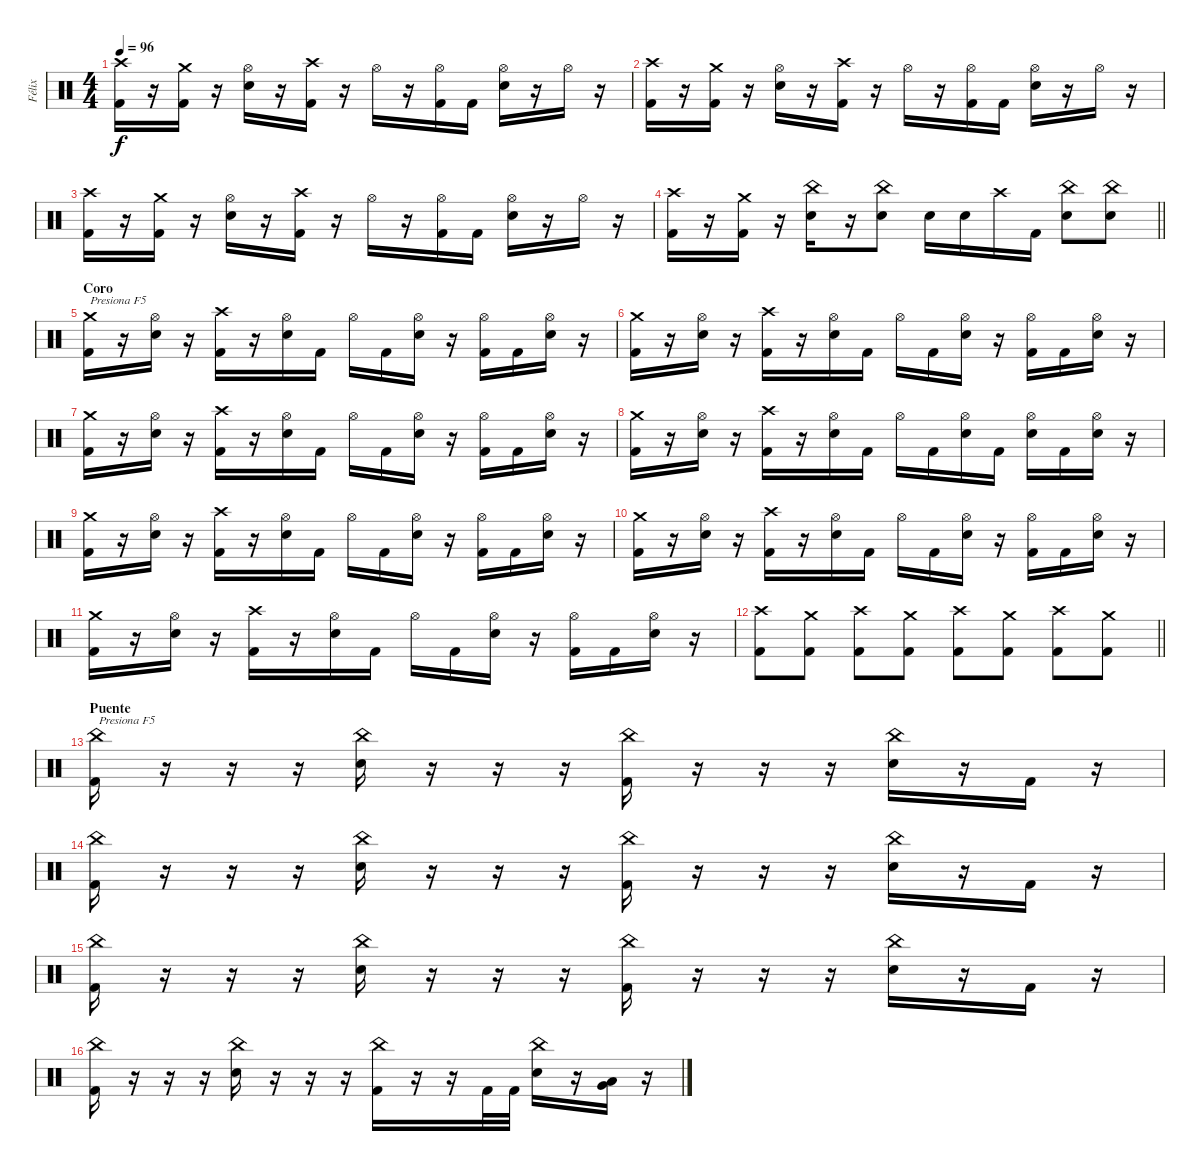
\track ("Félix" "Félix") {instrument percussion}
\staff {score}
\articulation defaults
\ts (4 4)
\tempo 96
\clef neutral
\ks c
("Crash high (hit)" "Kick (hit) 2").16{dy f} r.16 ("Crash medium (hit)" "Kick (hit) 2").16 r.16 ("Hi-Hat (open)" "Snare (hit) 2").16 r.16 ("Crash high (hit)" "Kick (hit) 2").16 r.16 "Hi-Hat (open)".16 r.16 ("Hi-Hat (open)" "Kick (hit) 2").16 "Kick (hit) 2".16 ("Hi-Hat (open)" "Snare (hit) 2").16 r.16 "Hi-Hat (open)".16 r.16 |
("Crash high (hit)" "Kick (hit) 2").16 r.16 ("Crash medium (hit)" "Kick (hit) 2").16 r.16 ("Hi-Hat (open)" "Snare (hit) 2").16 r.16 ("Crash high (hit)" "Kick (hit) 2").16 r.16 "Hi-Hat (open)".16 r.16 ("Hi-Hat (open)" "Kick (hit) 2").16 "Kick (hit) 2".16 ("Hi-Hat (open)" "Snare (hit) 2").16 r.16 "Hi-Hat (open)".16 r.16 |
("Crash high (hit)" "Kick (hit) 2").16 r.16 ("Crash medium (hit)" "Kick (hit) 2").16 r.16 ("Hi-Hat (open)" "Snare (hit) 2").16 r.16 ("Crash high (hit)" "Kick (hit) 2").16 r.16 "Hi-Hat (open)".16 r.16 ("Hi-Hat (open)" "Kick (hit) 2").16 "Kick (hit) 2".16 ("Hi-Hat (open)" "Snare (hit) 2").16 r.16 "Hi-Hat (open)".16 r.16 |
\barLineRight lightlight
("Crash high (hit)" "Kick (hit) 2").16 r.16 ("Crash medium (hit)" "Kick (hit) 2").16 r.16 ("China (hit)" "Snare (hit) 2").16 r.16 ("China (hit)" "Snare (hit) 2").8 "Snare (hit) 2".16 "Snare (hit) 2".16 "Crash high (hit)".16 "Kick (hit) 2".16 ("China (hit)" "Snare (hit) 2").8 ("China (hit)" "Snare (hit) 2").8 |
\section ("" "Coro")
("Crash medium (hit)" "Kick (hit) 2").16{txt "Presiona F5"} r.16 ("Hi-Hat (open)" "Snare (hit) 2").16 r.16 ("Crash high (hit)" "Kick (hit) 2").16 r.16 ("Hi-Hat (open)" "Snare (hit) 2").16 "Kick (hit) 2".16 "Hi-Hat (open)".16 "Kick (hit) 2".16 ("Hi-Hat (open)" "Snare (hit) 2").16 r.16 ("Hi-Hat (open)" "Kick (hit) 2").16 "Kick (hit) 2".16 ("Hi-Hat (open)" "Snare (hit) 2").16 r.16 |
("Crash medium (hit)" "Kick (hit) 2").16 r.16 ("Hi-Hat (open)" "Snare (hit) 2").16 r.16 ("Crash high (hit)" "Kick (hit) 2").16 r.16 ("Hi-Hat (open)" "Snare (hit) 2").16 "Kick (hit) 2".16 "Hi-Hat (open)".16 "Kick (hit) 2".16 ("Hi-Hat (open)" "Snare (hit) 2").16 r.16 ("Hi-Hat (open)" "Kick (hit) 2").16 "Kick (hit) 2".16 ("Hi-Hat (open)" "Snare (hit) 2").16 r.16 |
("Crash medium (hit)" "Kick (hit) 2").16 r.16 ("Hi-Hat (open)" "Snare (hit) 2").16 r.16 ("Crash high (hit)" "Kick (hit) 2").16 r.16 ("Hi-Hat (open)" "Snare (hit) 2").16 "Kick (hit) 2".16 "Hi-Hat (open)".16 "Kick (hit) 2".16 ("Hi-Hat (open)" "Snare (hit) 2").16 r.16 ("Hi-Hat (open)" "Kick (hit) 2").16 "Kick (hit) 2".16 ("Hi-Hat (open)" "Snare (hit) 2").16 r.16 |
("Crash medium (hit)" "Kick (hit) 2").16 r.16 ("Hi-Hat (open)" "Snare (hit) 2").16 r.16 ("Crash high (hit)" "Kick (hit) 2").16 r.16 ("Hi-Hat (open)" "Snare (hit) 2").16 "Kick (hit) 2".16 "Hi-Hat (open)".16 "Kick (hit) 2".16 ("Hi-Hat (open)" "Snare (hit) 2").16 "Kick (hit) 2".16 ("Hi-Hat (open)" "Snare (hit) 2").16 "Kick (hit) 2".16 ("Hi-Hat (open)" "Snare (hit) 2").16 r.16 |
("Crash medium (hit)" "Kick (hit) 2").16 r.16 ("Hi-Hat (open)" "Snare (hit) 2").16 r.16 ("Crash high (hit)" "Kick (hit) 2").16 r.16 ("Hi-Hat (open)" "Snare (hit) 2").16 "Kick (hit) 2".16 "Hi-Hat (open)".16 "Kick (hit) 2".16 ("Hi-Hat (open)" "Snare (hit) 2").16 r.16 ("Hi-Hat (open)" "Kick (hit) 2").16 "Kick (hit) 2".16 ("Hi-Hat (open)" "Snare (hit) 2").16 r.16 |
("Crash medium (hit)" "Kick (hit) 2").16 r.16 ("Hi-Hat (open)" "Snare (hit) 2").16 r.16 ("Crash high (hit)" "Kick (hit) 2").16 r.16 ("Hi-Hat (open)" "Snare (hit) 2").16 "Kick (hit) 2".16 "Hi-Hat (open)".16 "Kick (hit) 2".16 ("Hi-Hat (open)" "Snare (hit) 2").16 r.16 ("Hi-Hat (open)" "Kick (hit) 2").16 "Kick (hit) 2".16 ("Hi-Hat (open)" "Snare (hit) 2").16 r.16 |
("Crash medium (hit)" "Kick (hit) 2").16 r.16 ("Hi-Hat (open)" "Snare (hit) 2").16 r.16 ("Crash high (hit)" "Kick (hit) 2").16 r.16 ("Hi-Hat (open)" "Snare (hit) 2").16 "Kick (hit) 2".16 "Hi-Hat (open)".16 "Kick (hit) 2".16 ("Hi-Hat (open)" "Snare (hit) 2").16 r.16 ("Hi-Hat (open)" "Kick (hit) 2").16 "Kick (hit) 2".16 ("Hi-Hat (open)" "Snare (hit) 2").16 r.16 |
\barLineRight lightlight
("Crash high (hit)" "Kick (hit) 2").8 ("Crash medium (hit)" "Kick (hit) 2").8 ("Crash high (hit)" "Kick (hit) 2").8 ("Crash medium (hit)" "Kick (hit) 2").8 ("Crash high (hit)" "Kick (hit) 2").8 ("Crash medium (hit)" "Kick (hit) 2").8 ("Crash high (hit)" "Kick (hit) 2").8 ("Crash medium (hit)" "Kick (hit) 2").8 |
\section ("" "Puente")
("China (hit)" "Kick (hit) 2").16{txt "Presiona F5"} r.16 r.16 r.16 ("China (hit)" "Snare (hit) 2").16 r.16 r.16 r.16 ("China (hit)" "Kick (hit) 2").16 r.16 r.16 r.16 ("China (hit)" "Snare (hit) 2").16 r.16 "Kick (hit) 2".16 r.16 |
("China (hit)" "Kick (hit) 2").16 r.16 r.16 r.16 ("China (hit)" "Snare (hit) 2").16 r.16 r.16 r.16 ("China (hit)" "Kick (hit) 2").16 r.16 r.16 r.16 ("China (hit)" "Snare (hit) 2").16 r.16 "Kick (hit) 2".16 r.16 |
("China (hit)" "Kick (hit) 2").16 r.16 r.16 r.16 ("China (hit)" "Snare (hit) 2").16 r.16 r.16 r.16 ("China (hit)" "Kick (hit) 2").16 r.16 r.16 r.16 ("China (hit)" "Snare (hit) 2").16 r.16 "Kick (hit) 2".16 r.16 |
("China (hit)" "Kick (hit) 2").16 r.16 r.16 r.16 ("China (hit)" "Snare (hit) 2").16 r.16 r.16 r.16 ("China (hit)" "Kick (hit) 2").16 r.16 r.16 "Kick (hit) 2".32 "Kick (hit) 2".32 ("China (hit)" "Snare (hit) 2").16 r.16 ("Very Low Tom (hit)" "Low Floor Tom (hit)").16 r.16
